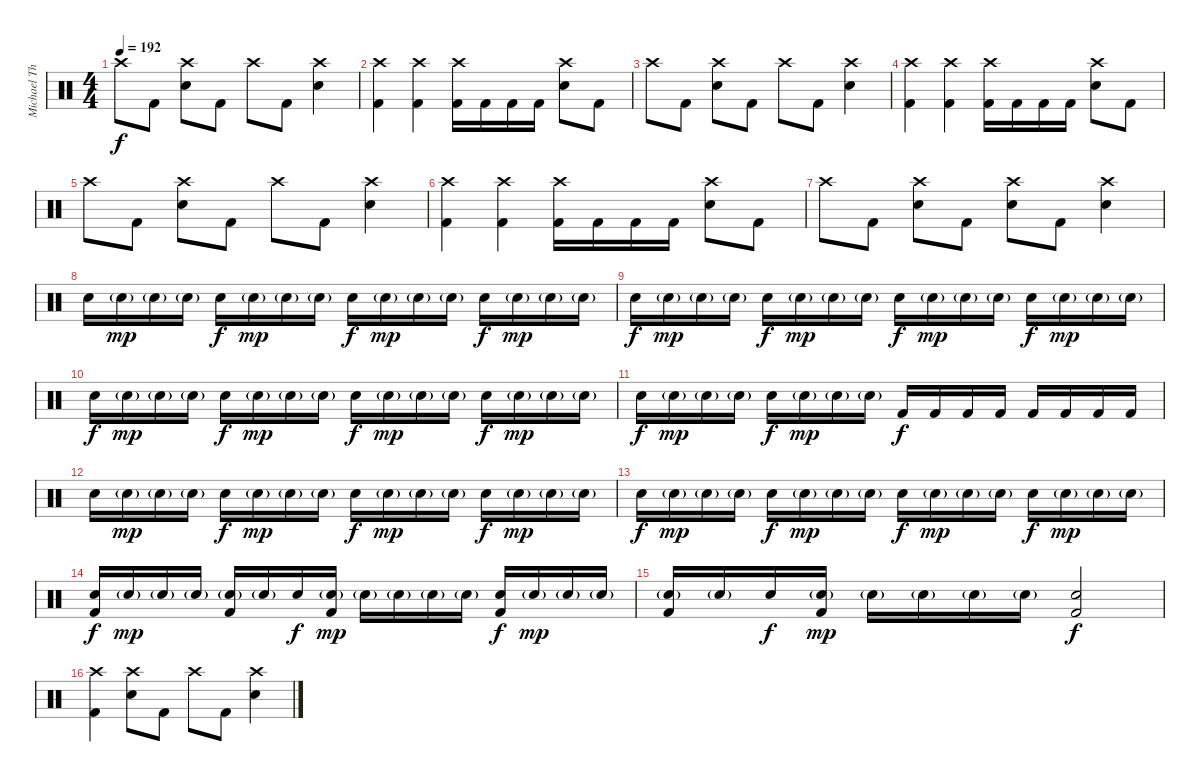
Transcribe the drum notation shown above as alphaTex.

\track ("Michael Thomas (Drums)" "Michael Th") {instrument percussion}
\staff {score}
\articulation defaults
\ts (4 4)
\tempo 192
\clef neutral
\ks c "Crash high (hit)".8{dy f} "Kick (hit) 2".8
("Crash high (hit)" "Snare (hit) 2").8 "Kick (hit) 2".8 "Crash high (hit)".8 "Kick (hit) 2".8 ("Crash high (hit)" "Snare (hit) 2").4 |
("Crash high (hit)" "Kick (hit) 2").4 ("Crash high (hit)" "Kick (hit) 2").4 ("Crash high (hit)" "Kick (hit) 2").16 "Kick (hit) 2".16 "Kick (hit) 2".16 "Kick (hit) 2".16 ("Crash high (hit)" "Snare (hit) 2").8 "Kick (hit) 2".8 |
"Crash high (hit)".8 "Kick (hit) 2".8 ("Crash high (hit)" "Snare (hit) 2").8 "Kick (hit) 2".8 "Crash high (hit)".8 "Kick (hit) 2".8 ("Crash high (hit)" "Snare (hit) 2").4 |
("Crash high (hit)" "Kick (hit) 2").4 ("Crash high (hit)" "Kick (hit) 2").4 ("Crash high (hit)" "Kick (hit) 2").16 "Kick (hit) 2".16 "Kick (hit) 2".16 "Kick (hit) 2".16 ("Crash high (hit)" "Snare (hit) 2").8 "Kick (hit) 2".8 |
"Crash high (hit)".8 "Kick (hit) 2".8 ("Crash high (hit)" "Snare (hit) 2").8 "Kick (hit) 2".8 "Crash high (hit)".8 "Kick (hit) 2".8 ("Crash high (hit)" "Snare (hit) 2").4 |
("Crash high (hit)" "Kick (hit) 2").4 ("Crash high (hit)" "Kick (hit) 2").4 ("Crash high (hit)" "Kick (hit) 2").16 "Kick (hit) 2".16 "Kick (hit) 2".16 "Kick (hit) 2".16 ("Crash high (hit)" "Snare (hit) 2").8 "Kick (hit) 2".8 |
"Crash high (hit)".8 "Kick (hit) 2".8 ("Crash high (hit)" "Snare (hit) 2").8 "Kick (hit) 2".8 ("Crash high (hit)" "Snare (hit) 2").8 "Kick (hit) 2".8 ("Crash high (hit)" "Snare (hit) 2").4 |
"Snare (hit) 2".16 "Snare (hit) 2"{g}.16{dy mp} "Snare (hit) 2"{g}.16 "Snare (hit) 2"{g}.16 "Snare (hit) 2".16{dy f} "Snare (hit) 2"{g}.16{dy mp} "Snare (hit) 2"{g}.16 "Snare (hit) 2"{g}.16 "Snare (hit) 2".16{dy f} "Snare (hit) 2"{g}.16{dy mp} "Snare (hit) 2"{g}.16 "Snare (hit) 2"{g}.16 "Snare (hit) 2".16{dy f} "Snare (hit) 2"{g}.16{dy mp} "Snare (hit) 2"{g}.16 "Snare (hit) 2"{g}.16 |
"Snare (hit) 2".16{dy f} "Snare (hit) 2"{g}.16{dy mp} "Snare (hit) 2"{g}.16 "Snare (hit) 2"{g}.16 "Snare (hit) 2".16{dy f} "Snare (hit) 2"{g}.16{dy mp} "Snare (hit) 2"{g}.16 "Snare (hit) 2"{g}.16 "Snare (hit) 2".16{dy f} "Snare (hit) 2"{g}.16{dy mp} "Snare (hit) 2"{g}.16 "Snare (hit) 2"{g}.16 "Snare (hit) 2".16{dy f} "Snare (hit) 2"{g}.16{dy mp} "Snare (hit) 2"{g}.16 "Snare (hit) 2"{g}.16 |
"Snare (hit) 2".16{dy f} "Snare (hit) 2"{g}.16{dy mp} "Snare (hit) 2"{g}.16 "Snare (hit) 2"{g}.16 "Snare (hit) 2".16{dy f} "Snare (hit) 2"{g}.16{dy mp} "Snare (hit) 2"{g}.16 "Snare (hit) 2"{g}.16 "Snare (hit) 2".16{dy f} "Snare (hit) 2"{g}.16{dy mp} "Snare (hit) 2"{g}.16 "Snare (hit) 2"{g}.16 "Snare (hit) 2".16{dy f} "Snare (hit) 2"{g}.16{dy mp} "Snare (hit) 2"{g}.16 "Snare (hit) 2"{g}.16 |
"Snare (hit) 2".16{dy f} "Snare (hit) 2"{g}.16{dy mp} "Snare (hit) 2"{g}.16 "Snare (hit) 2"{g}.16 "Snare (hit) 2".16{dy f} "Snare (hit) 2"{g}.16{dy mp} "Snare (hit) 2"{g}.16 "Snare (hit) 2"{g}.16 "Kick (hit) 2".16{dy f} "Kick (hit) 2".16 "Kick (hit) 2".16 "Kick (hit) 2".16 "Kick (hit) 2".16 "Kick (hit) 2".16 "Kick (hit) 2".16 "Kick (hit) 2".16 |
"Snare (hit) 2".16 "Snare (hit) 2"{g}.16{dy mp} "Snare (hit) 2"{g}.16 "Snare (hit) 2"{g}.16 "Snare (hit) 2".16{dy f} "Snare (hit) 2"{g}.16{dy mp} "Snare (hit) 2"{g}.16 "Snare (hit) 2"{g}.16 "Snare (hit) 2".16{dy f} "Snare (hit) 2"{g}.16{dy mp} "Snare (hit) 2"{g}.16 "Snare (hit) 2"{g}.16 "Snare (hit) 2".16{dy f} "Snare (hit) 2"{g}.16{dy mp} "Snare (hit) 2"{g}.16 "Snare (hit) 2"{g}.16 |
"Snare (hit) 2".16{dy f} "Snare (hit) 2"{g}.16{dy mp} "Snare (hit) 2"{g}.16 "Snare (hit) 2"{g}.16 "Snare (hit) 2".16{dy f} "Snare (hit) 2"{g}.16{dy mp} "Snare (hit) 2"{g}.16 "Snare (hit) 2"{g}.16 "Snare (hit) 2".16{dy f} "Snare (hit) 2"{g}.16{dy mp} "Snare (hit) 2"{g}.16 "Snare (hit) 2"{g}.16 "Snare (hit) 2".16{dy f} "Snare (hit) 2"{g}.16{dy mp} "Snare (hit) 2"{g}.16 "Snare (hit) 2"{g}.16 |
("Kick (hit) 2" "Snare (hit) 2").16{dy f} "Snare (hit) 2"{g}.16{dy mp} "Snare (hit) 2"{g}.16 "Snare (hit) 2"{g}.16 ("Kick (hit) 2" "Snare (hit) 2"{g}).16 "Snare (hit) 2"{g}.16 "Snare (hit) 2".16{dy f} ("Kick (hit) 2" "Snare (hit) 2"{g}).16{dy mp} "Snare (hit) 2"{g}.16 "Snare (hit) 2"{g}.16 "Snare (hit) 2"{g}.16 "Snare (hit) 2"{g}.16 ("Kick (hit) 2" "Snare (hit) 2").16{dy f} "Snare (hit) 2"{g}.16{dy mp} "Snare (hit) 2"{g}.16 "Snare (hit) 2"{g}.16 |
("Kick (hit) 2" "Snare (hit) 2"{g}).16 "Snare (hit) 2"{g}.16 "Snare (hit) 2".16{dy f} ("Kick (hit) 2" "Snare (hit) 2"{g}).16{dy mp} "Snare (hit) 2"{g}.16 "Snare (hit) 2"{g}.16 "Snare (hit) 2"{g}.16 "Snare (hit) 2"{g}.16 ("Kick (hit) 2" "Snare (hit) 2").2{dy f} |
("Crash high (hit)" "Kick (hit) 2").4 ("Crash high (hit)" "Snare (hit) 2").8 "Kick (hit) 2".8 "Crash high (hit)".8 "Kick (hit) 2".8 ("Crash high (hit)" "Snare (hit) 2").4
